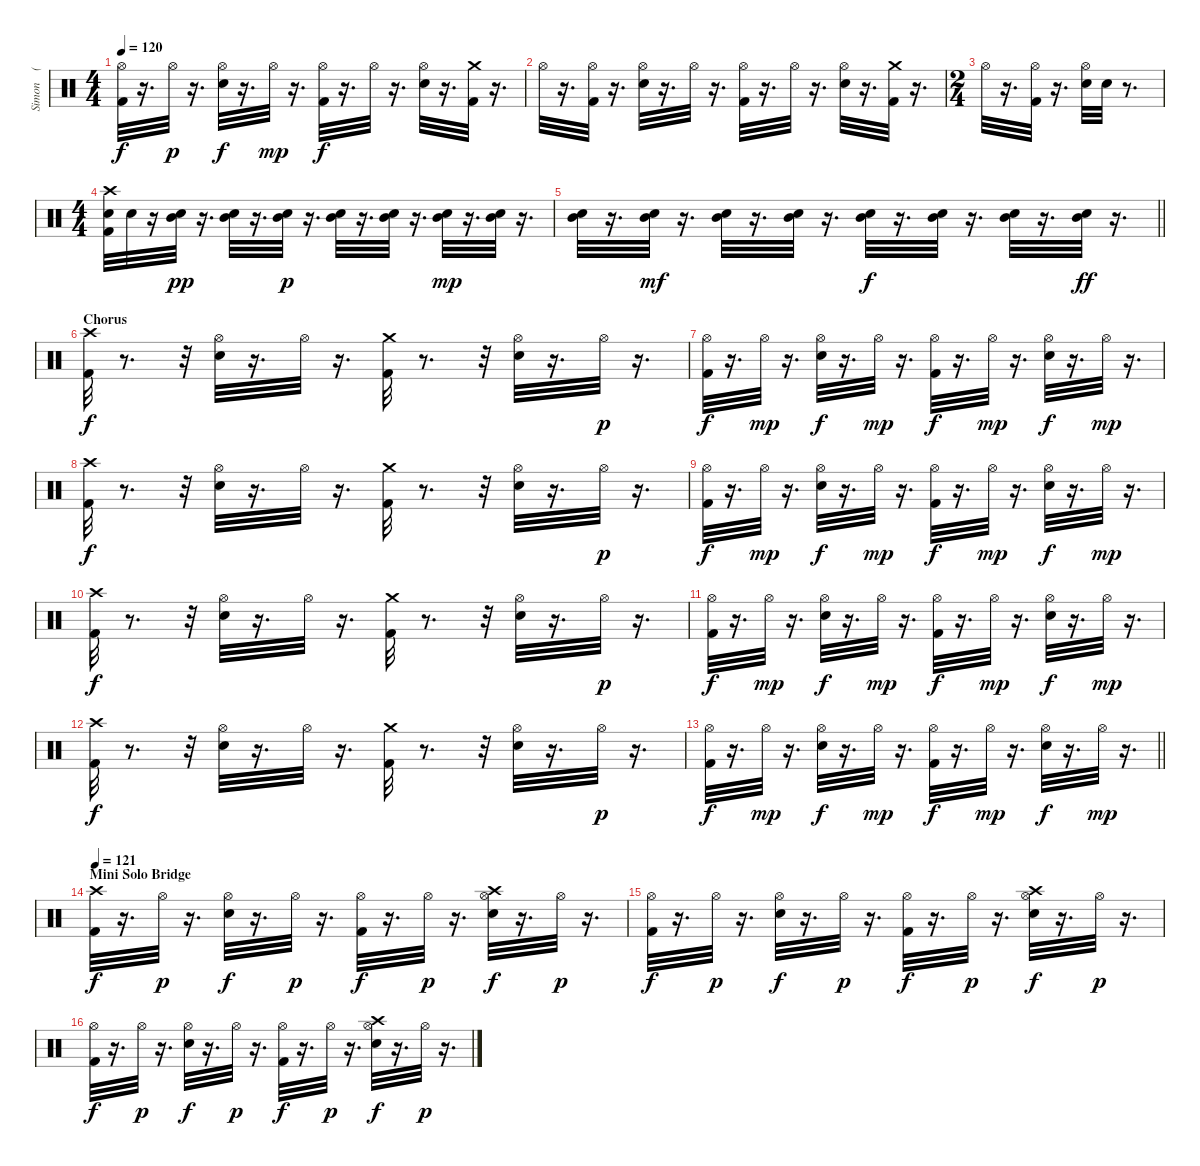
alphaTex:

\track ("Simon    (Drums)" "Simon    (") {instrument percussion}
\staff {score}
\articulation defaults
\ts (4 4)
\tempo 120
\clef neutral
\ks c
("Hi-Hat (open)" "Kick (hit) 2").32{dy f} r.16{d} "Hi-Hat (open)".32{dy p} r.16{d} ("Hi-Hat (open)" "Electric Snare (hit)").32{dy f} r.16{d} "Hi-Hat (open)".32{dy mp} r.16{d} ("Hi-Hat (open)" "Kick (hit) 2").32{dy f} r.16{d} "Hi-Hat (open)".32 r.16{d} ("Hi-Hat (open)" "Electric Snare (hit)").32 r.16{d} ("Crash medium (hit)" "Kick (hit) 2").32 r.16{d} |
"Hi-Hat (open)".32 r.16{d} ("Kick (hit) 2" "Hi-Hat (open)").32 r.16{d} ("Hi-Hat (open)" "Electric Snare (hit)").32 r.16{d} "Hi-Hat (open)".32 r.16{d} ("Hi-Hat (open)" "Kick (hit) 2").32 r.16{d} "Hi-Hat (open)".32 r.16{d} ("Hi-Hat (open)" "Electric Snare (hit)").32 r.16{d} ("Crash medium (hit)" "Kick (hit) 2").32 r.16{d} |
\ts (2 4)
"Hi-Hat (open)".32 r.16{d} ("Kick (hit) 2" "Hi-Hat (open)").32 r.16{d} ("Electric Snare (hit)" "Hi-Hat (open)").32 "Snare (hit) 2".32 r.8{d} |
\ts (4 4)
("Crash high (hit)" "Kick (hit) 2" "Electric Snare (hit)").32 "Snare (hit) 2".32 r.16 ("Mid Tom (hit)" "Electric Snare (hit)").32{dy pp} r.16{d} ("Mid Tom (hit)" "Electric Snare (hit)").32 r.16{d} ("Mid Tom (hit)" "Electric Snare (hit)").32{dy p} r.16{d} ("Mid Tom (hit)" "Electric Snare (hit)").32 r.16{d} ("Mid Tom (hit)" "Electric Snare (hit)").32 r.16{d} ("Mid Tom (hit)" "Electric Snare (hit)").32{dy mp} r.16{d} ("Mid Tom (hit)" "Electric Snare (hit)").32 r.16{d} |
\barLineRight lightlight
("Mid Tom (hit)" "Electric Snare (hit)").32 r.16{d} ("Mid Tom (hit)" "Electric Snare (hit)").32{dy mf} r.16{d} ("Mid Tom (hit)" "Electric Snare (hit)").32 r.16{d} ("Mid Tom (hit)" "Electric Snare (hit)").32 r.16{d} ("Mid Tom (hit)" "Electric Snare (hit)").32{dy f} r.16{d} ("Mid Tom (hit)" "Electric Snare (hit)").32 r.16{d} ("Mid Tom (hit)" "Electric Snare (hit)").32 r.16{d} ("Mid Tom (hit)" "Electric Snare (hit)").32{dy ff} r.16{d} |
\section ("" "Chorus")
("Kick (hit) 2" "Crash high (hit)").32{dy f} r.8{d} r.32 ("Electric Snare (hit)" "Hi-Hat (open)").32 r.16{d} "Hi-Hat (open)".32 r.16{d} ("Kick (hit) 2" "Crash medium (hit)").32 r.8{d} r.32 ("Hi-Hat (open)" "Electric Snare (hit)").32 r.16{d} "Hi-Hat (open)".32{dy p} r.16{d} |
("Hi-Hat (open)" "Kick (hit) 2").32{dy f} r.16{d} "Hi-Hat (open)".32{dy mp} r.16{d} ("Hi-Hat (open)" "Electric Snare (hit)").32{dy f} r.16{d} "Hi-Hat (open)".32{dy mp} r.16{d} ("Hi-Hat (open)" "Kick (hit) 2").32{dy f} r.16{d} "Hi-Hat (open)".32{dy mp} r.16{d} ("Hi-Hat (open)" "Electric Snare (hit)").32{dy f} r.16{d} "Hi-Hat (open)".32{dy mp} r.16{d} |
("Kick (hit) 2" "Crash high (hit)").32{dy f} r.8{d} r.32 ("Electric Snare (hit)" "Hi-Hat (open)").32 r.16{d} "Hi-Hat (open)".32 r.16{d} ("Kick (hit) 2" "Crash medium (hit)").32 r.8{d} r.32 ("Hi-Hat (open)" "Electric Snare (hit)").32 r.16{d} "Hi-Hat (open)".32{dy p} r.16{d} |
("Hi-Hat (open)" "Kick (hit) 2").32{dy f} r.16{d} "Hi-Hat (open)".32{dy mp} r.16{d} ("Hi-Hat (open)" "Electric Snare (hit)").32{dy f} r.16{d} "Hi-Hat (open)".32{dy mp} r.16{d} ("Hi-Hat (open)" "Kick (hit) 2").32{dy f} r.16{d} "Hi-Hat (open)".32{dy mp} r.16{d} ("Hi-Hat (open)" "Electric Snare (hit)").32{dy f} r.16{d} "Hi-Hat (open)".32{dy mp} r.16{d} |
("Kick (hit) 2" "Crash high (hit)").32{dy f} r.8{d} r.32 ("Electric Snare (hit)" "Hi-Hat (open)").32 r.16{d} "Hi-Hat (open)".32 r.16{d} ("Kick (hit) 2" "Crash medium (hit)").32 r.8{d} r.32 ("Hi-Hat (open)" "Electric Snare (hit)").32 r.16{d} "Hi-Hat (open)".32{dy p} r.16{d} |
("Hi-Hat (open)" "Kick (hit) 2").32{dy f} r.16{d} "Hi-Hat (open)".32{dy mp} r.16{d} ("Hi-Hat (open)" "Electric Snare (hit)").32{dy f} r.16{d} "Hi-Hat (open)".32{dy mp} r.16{d} ("Hi-Hat (open)" "Kick (hit) 2").32{dy f} r.16{d} "Hi-Hat (open)".32{dy mp} r.16{d} ("Hi-Hat (open)" "Electric Snare (hit)").32{dy f} r.16{d} "Hi-Hat (open)".32{dy mp} r.16{d} |
("Kick (hit) 2" "Crash high (hit)").32{dy f} r.8{d} r.32 ("Electric Snare (hit)" "Hi-Hat (open)").32 r.16{d} "Hi-Hat (open)".32 r.16{d} ("Kick (hit) 2" "Crash medium (hit)").32 r.8{d} r.32 ("Hi-Hat (open)" "Electric Snare (hit)").32 r.16{d} "Hi-Hat (open)".32{dy p} r.16{d} |
\barLineRight lightlight
("Hi-Hat (open)" "Kick (hit) 2").32{dy f} r.16{d} "Hi-Hat (open)".32{dy mp} r.16{d} ("Hi-Hat (open)" "Electric Snare (hit)").32{dy f} r.16{d} "Hi-Hat (open)".32{dy mp} r.16{d} ("Hi-Hat (open)" "Kick (hit) 2").32{dy f} r.16{d} "Hi-Hat (open)".32{dy mp} r.16{d} ("Hi-Hat (open)" "Electric Snare (hit)").32{dy f} r.16{d} "Hi-Hat (open)".32{dy mp} r.16{d} |
\section ("" "Mini Solo Bridge")
\tempo 121
("Kick (hit) 2" "Crash high (hit)").32{dy f} r.16{d} "Hi-Hat (open)".32{dy p} r.16{d} ("Hi-Hat (open)" "Electric Snare (hit)").32{dy f} r.16{d} "Hi-Hat (open)".32{dy p} r.16{d} ("Hi-Hat (open)" "Kick (hit) 2").32{dy f} r.16{d} "Hi-Hat (open)".32{dy p} r.16{d} ("Crash high (hit)" "Hi-Hat (open)" "Electric Snare (hit)").32{dy f} r.16{d} "Hi-Hat (open)".32{dy p} r.16{d} |
("Hi-Hat (open)" "Kick (hit) 2").32{dy f} r.16{d} "Hi-Hat (open)".32{dy p} r.16{d} ("Hi-Hat (open)" "Electric Snare (hit)").32{dy f} r.16{d} "Hi-Hat (open)".32{dy p} r.16{d} ("Hi-Hat (open)" "Kick (hit) 2").32{dy f} r.16{d} "Hi-Hat (open)".32{dy p} r.16{d} ("Crash high (hit)" "Hi-Hat (open)" "Electric Snare (hit)").32{dy f} r.16{d} "Hi-Hat (open)".32{dy p} r.16{d} |
("Hi-Hat (open)" "Kick (hit) 2").32{dy f} r.16{d} "Hi-Hat (open)".32{dy p} r.16{d} ("Hi-Hat (open)" "Electric Snare (hit)").32{dy f} r.16{d} "Hi-Hat (open)".32{dy p} r.16{d} ("Hi-Hat (open)" "Kick (hit) 2").32{dy f} r.16{d} "Hi-Hat (open)".32{dy p} r.16{d} ("Crash high (hit)" "Hi-Hat (open)" "Electric Snare (hit)").32{dy f} r.16{d} "Hi-Hat (open)".32{dy p} r.16{d}
